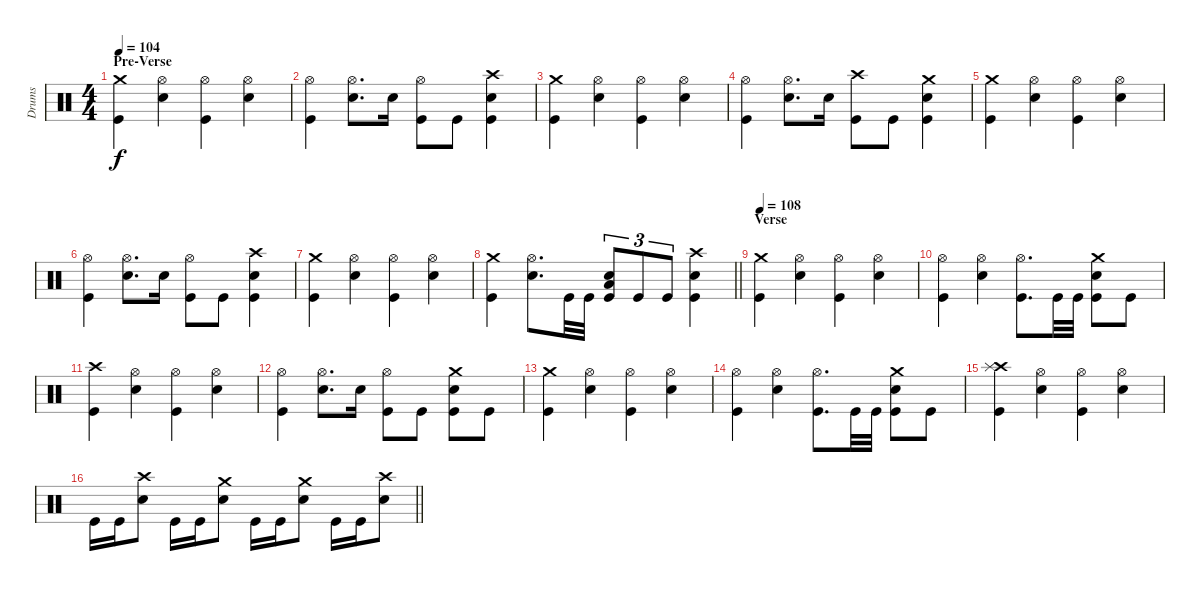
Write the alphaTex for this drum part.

\track ("Drums" "Drums") {instrument percussion}
\staff {score}
\articulation defaults
\ts (4 4)
\section ("" "Pre-Verse")
\tempo 104
\clef neutral
\ks c
("Crash medium (hit)" "Kick (hit)").4{dy f} ("Hi-Hat (open)" "Electric Snare (hit)").4 ("Hi-Hat (open)" "Kick (hit)").4 ("Hi-Hat (open)" "Electric Snare (hit)").4 |
("Hi-Hat (open)" "Kick (hit)").4 ("Hi-Hat (open)" "Electric Snare (hit)").8{d} "Electric Snare (hit)".16 ("Hi-Hat (open)" "Kick (hit)").8 "Kick (hit)".8 ("Crash high (hit)" "Electric Snare (hit)" "Kick (hit)").4 |
("Crash medium (hit)" "Kick (hit)").4 ("Hi-Hat (open)" "Electric Snare (hit)").4 ("Hi-Hat (open)" "Kick (hit)").4 ("Hi-Hat (open)" "Electric Snare (hit)").4 |
("Hi-Hat (open)" "Kick (hit)").4 ("Hi-Hat (open)" "Electric Snare (hit)").8{d} "Electric Snare (hit)".16 ("Crash high (hit)" "Kick (hit)").8 "Kick (hit)".8 ("Crash medium (hit)" "Electric Snare (hit)" "Kick (hit)").4 |
("Crash medium (hit)" "Kick (hit)").4 ("Hi-Hat (open)" "Electric Snare (hit)").4 ("Hi-Hat (open)" "Kick (hit)").4 ("Hi-Hat (open)" "Electric Snare (hit)").4 |
("Hi-Hat (open)" "Kick (hit)").4 ("Hi-Hat (open)" "Electric Snare (hit)").8{d} "Electric Snare (hit)".16 ("Hi-Hat (open)" "Kick (hit)").8 "Kick (hit)".8 ("Crash high (hit)" "Electric Snare (hit)" "Kick (hit)").4 |
("Crash medium (hit)" "Kick (hit)").4 ("Hi-Hat (open)" "Electric Snare (hit)").4 ("Hi-Hat (open)" "Kick (hit)").4 ("Hi-Hat (open)" "Electric Snare (hit)").4 |
\barLineRight lightlight
("Crash medium (hit)" "Kick (hit)").4 ("Hi-Hat (open)" "Electric Snare (hit)").8{d} "Kick (hit)".32 "Kick (hit)".32 ("Electric Snare (hit)" "Low Floor Tom (hit)" "Kick (hit)").8{tu (3 2)} "Kick (hit)".8{tu (3 2)} "Kick (hit)".8{tu (3 2)} ("Crash high (hit)" "Electric Snare (hit)" "Kick (hit)").4 |
\section ("" "Verse")
\tempo 108
("Crash medium (hit)" "Kick (hit)").4 ("Hi-Hat (open)" "Electric Snare (hit)").4 ("Hi-Hat (open)" "Kick (hit)").4 ("Hi-Hat (open)" "Electric Snare (hit)").4 |
("Hi-Hat (open)" "Kick (hit)").4 ("Hi-Hat (open)" "Electric Snare (hit)").4 ("Hi-Hat (open)" "Kick (hit)").8{d} "Kick (hit)".32 "Kick (hit)".32 ("Crash medium (hit)" "Electric Snare (hit)" "Kick (hit)").8 "Kick (hit)".8 |
("Crash high (hit)" "Kick (hit)").4 ("Hi-Hat (open)" "Electric Snare (hit)").4 ("Hi-Hat (open)" "Kick (hit)").4 ("Hi-Hat (open)" "Electric Snare (hit)").4 |
("Hi-Hat (open)" "Kick (hit)").4 ("Hi-Hat (open)" "Electric Snare (hit)").8{d} "Electric Snare (hit)".16 ("Hi-Hat (open)" "Kick (hit)").8 "Kick (hit)".8 ("Crash medium (hit)" "Electric Snare (hit)" "Kick (hit)").8 "Kick (hit)".8 |
("Crash medium (hit)" "Kick (hit)").4 ("Hi-Hat (open)" "Electric Snare (hit)").4 ("Hi-Hat (open)" "Kick (hit)").4 ("Hi-Hat (open)" "Electric Snare (hit)").4 |
("Hi-Hat (open)" "Kick (hit)").4 ("Hi-Hat (open)" "Electric Snare (hit)").4 ("Hi-Hat (open)" "Kick (hit)").8{d} "Kick (hit)".32 "Kick (hit)".32 ("Crash medium (hit)" "Electric Snare (hit)" "Kick (hit)").8 "Kick (hit)".8 |
("Crash high (hit)" "Splash (hit)" "Kick (hit)").4 ("Hi-Hat (open)" "Electric Snare (hit)").4 ("Hi-Hat (open)" "Kick (hit)").4 ("Hi-Hat (open)" "Electric Snare (hit)").4 |
\barLineRight lightlight "Kick (hit)".16 "Kick (hit)".16
("Crash high (hit)" "Electric Snare (hit)").8 "Kick (hit)".16 "Kick (hit)".16 ("Crash medium (hit)" "Electric Snare (hit)").8 "Kick (hit)".16 "Kick (hit)".16 ("Crash medium (hit)" "Electric Snare (hit)").8 "Kick (hit)".16 "Kick (hit)".16 ("Crash high (hit)" "Electric Snare (hit)").8
